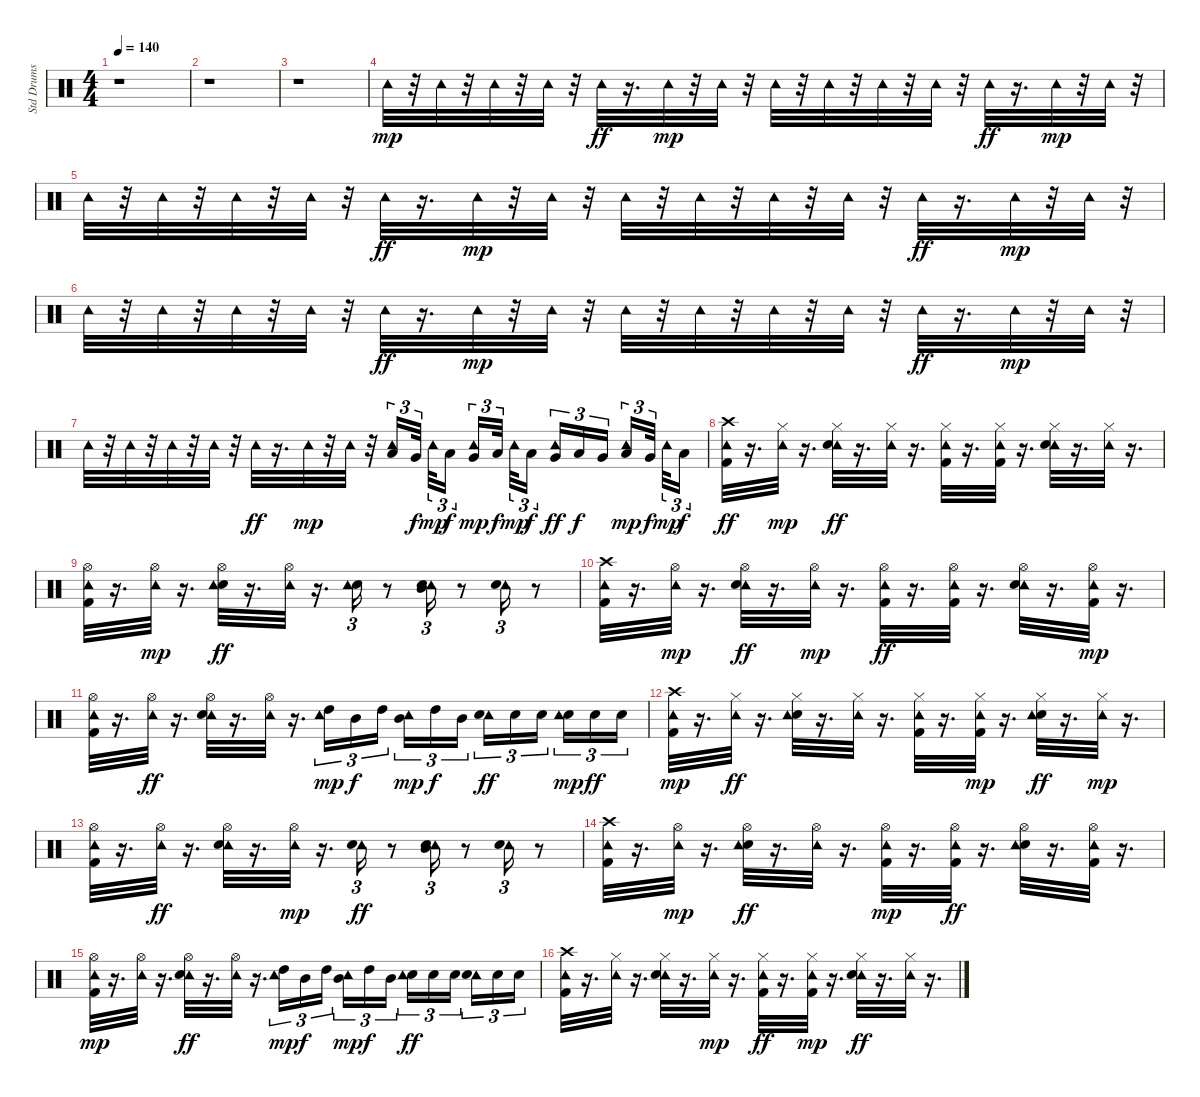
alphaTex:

\track ("Std Drums" "Std Drums") {instrument percussion}
\staff {score}
\articulation defaults
\ts (4 4)
\tempo 140
\clef neutral
\ks c
r.1{dy ff} |
r.1 |
r.1 |
"Tambourine (hit)".32{dy mp} r.32 "Tambourine (hit)".32 r.32 "Tambourine (hit)".32 r.32 "Tambourine (hit)".32 r.32 "Tambourine (hit)".32{dy ff} r.16{d} "Tambourine (hit)".32{dy mp} r.32 "Tambourine (hit)".32 r.32 "Tambourine (hit)".32 r.32 "Tambourine (hit)".32 r.32 "Tambourine (hit)".32 r.32 "Tambourine (hit)".32 r.32 "Tambourine (hit)".32{dy ff} r.16{d} "Tambourine (hit)".32{dy mp} r.32 "Tambourine (hit)".32 r.32 |
"Tambourine (hit)".32 r.32 "Tambourine (hit)".32 r.32 "Tambourine (hit)".32 r.32 "Tambourine (hit)".32 r.32 "Tambourine (hit)".32{dy ff} r.16{d} "Tambourine (hit)".32{dy mp} r.32 "Tambourine (hit)".32 r.32 "Tambourine (hit)".32 r.32 "Tambourine (hit)".32 r.32 "Tambourine (hit)".32 r.32 "Tambourine (hit)".32 r.32 "Tambourine (hit)".32{dy ff} r.16{d} "Tambourine (hit)".32{dy mp} r.32 "Tambourine (hit)".32 r.32 |
"Tambourine (hit)".32 r.32 "Tambourine (hit)".32 r.32 "Tambourine (hit)".32 r.32 "Tambourine (hit)".32 r.32 "Tambourine (hit)".32{dy ff} r.16{d} "Tambourine (hit)".32{dy mp} r.32 "Tambourine (hit)".32 r.32 "Tambourine (hit)".32 r.32 "Tambourine (hit)".32 r.32 "Tambourine (hit)".32 r.32 "Tambourine (hit)".32 r.32 "Tambourine (hit)".32{dy ff} r.16{d} "Tambourine (hit)".32{dy mp} r.32 "Tambourine (hit)".32 r.32 |
"Tambourine (hit)".32 r.32 "Tambourine (hit)".32 r.32 "Tambourine (hit)".32 r.32 "Tambourine (hit)".32 r.32 "Tambourine (hit)".32{dy ff} r.16{d} "Tambourine (hit)".32{dy mp} r.32 "Tambourine (hit)".32 r.32 ("Tambourine (hit)" "Low Floor Tom (hit)").16{tu (3 2)} "Very Low Tom (hit)".32{tu (3 2) dy f} "Tambourine (hit)".32{tu (3 2) dy mp} "Low Floor Tom (hit)".16{tu (3 2) dy f} ("Very Low Tom (hit)" "Tambourine (hit)").16{tu (3 2) dy mp} "Low Floor Tom (hit)".32{tu (3 2) dy f} "Tambourine (hit)".32{tu (3 2) dy mp} "Low Floor Tom (hit)".16{tu (3 2) dy f} ("Very Low Tom (hit)" "Tambourine (hit)").16{tu (3 2) dy ff} "Low Floor Tom (hit)".16{tu (3 2) dy f} "Very Low Tom (hit)".16{tu (3 2)} ("Low Floor Tom (hit)" "Tambourine (hit)").16{tu (3 2) dy mp} "Very Low Tom (hit)".32{tu (3 2) dy f} "Tambourine (hit)".32{tu (3 2) dy mp} "Low Floor Tom (hit)".16{tu (3 2) dy f} |
("Crash high (hit)" "Tambourine (hit)" "Kick (hit) 2").32{dy ff} r.16{d} ("Hi-Hat (closed)" "Tambourine (hit)").32{dy mp} r.16{d} ("Hi-Hat (closed)" "Tambourine (hit)" "Snare (hit) 2").32{dy ff} r.16{d} ("Tambourine (hit)" "Hi-Hat (closed)").32 r.16{d} ("Hi-Hat (closed)" "Tambourine (hit)" "Kick (hit) 2").32 r.16{d} ("Tambourine (hit)" "Hi-Hat (closed)" "Kick (hit) 2").32 r.16{d} ("Tambourine (hit)" "Snare (hit) 2" "Hi-Hat (closed)").32 r.16{d} ("Tambourine (hit)" "Hi-Hat (closed)").32 r.16{d} |
("Kick (hit) 2" "Tambourine (hit)" "Hi-Hat (open)").32 r.16{d} ("Hi-Hat (open)" "Tambourine (hit)").32{dy mp} r.16{d} ("Snare (hit) 2" "Tambourine (hit)" "Hi-Hat (open)").32{dy ff} r.16{d} ("Tambourine (hit)" "Hi-Hat (open)").32 r.16{d} ("Snare (hit) 2" "Tambourine (hit)").16{tu (3 2)} r.8 ("Tambourine (hit)" "Mid Tom (hit)" "Snare (hit) 2").16{tu (3 2)} r.8 ("Tambourine (hit)" "Snare (hit) 2").16{tu (3 2)} r.8 |
("Tambourine (hit)" "Crash high (hit)" "Kick (hit) 2").32 r.16{d} ("Hi-Hat (open)" "Tambourine (hit)").32{dy mp} r.16{d} ("Hi-Hat (open)" "Tambourine (hit)" "Snare (hit) 2").32{dy ff} r.16{d} ("Hi-Hat (open)" "Tambourine (hit)").32{dy mp} r.16{d} ("Tambourine (hit)" "Kick (hit) 2" "Hi-Hat (open)").32{dy ff} r.16{d} ("Hi-Hat (open)" "Tambourine (hit)" "Kick (hit) 2").32 r.16{d} ("Tambourine (hit)" "Snare (hit) 2" "Hi-Hat (open)").32 r.16{d} ("Hi-Hat (open)" "Kick (hit) 2" "Tambourine (hit)").32{dy mp} r.16{d} |
("Kick (hit) 2" "Hi-Hat (open)" "Tambourine (hit)").32 r.16{d} ("Tambourine (hit)" "Hi-Hat (open)").32{dy ff} r.16{d} ("Tambourine (hit)" "Snare (hit) 2" "Hi-Hat (open)").32 r.16{d} ("Tambourine (hit)" "Hi-Hat (open)").32 r.16{d} ("High Tom (hit)" "Tambourine (hit)").16{tu (3 2) dy mp} "Mid Tom (hit)".16{tu (3 2) dy f} "High Tom (hit)".16{tu (3 2)} ("Mid Tom (hit)" "Tambourine (hit)").16{tu (3 2) dy mp} "High Tom (hit)".16{tu (3 2) dy f} "Mid Tom (hit)".16{tu (3 2)} ("Tambourine (hit)" "Snare (hit) 2").16{tu (3 2) dy ff} "Snare (hit) 2".16{tu (3 2)} "Snare (hit) 2".16{tu (3 2)} ("Snare (hit) 2" "Tambourine (hit)").16{tu (3 2) dy mp} "Snare (hit) 2".16{tu (3 2) dy ff} "Snare (hit) 2".16{tu (3 2)} |
("Crash high (hit)" "Kick (hit) 2" "Tambourine (hit)").32{dy mp} r.16{d} ("Tambourine (hit)" "Hi-Hat (closed)").32{dy ff} r.16{d} ("Snare (hit) 2" "Tambourine (hit)" "Hi-Hat (closed)").32 r.16{d} ("Tambourine (hit)" "Hi-Hat (closed)").32 r.16{d} ("Tambourine (hit)" "Kick (hit) 2" "Hi-Hat (closed)").32 r.16{d} ("Hi-Hat (closed)" "Kick (hit) 2" "Tambourine (hit)").32{dy mp} r.16{d} ("Snare (hit) 2" "Hi-Hat (closed)" "Tambourine (hit)").32{dy ff} r.16{d} ("Hi-Hat (closed)" "Tambourine (hit)").32{dy mp} r.16{d} |
("Hi-Hat (open)" "Kick (hit) 2" "Tambourine (hit)").32 r.16{d} ("Tambourine (hit)" "Hi-Hat (open)").32{dy ff} r.16{d} ("Hi-Hat (open)" "Tambourine (hit)" "Snare (hit) 2").32 r.16{d} ("Hi-Hat (open)" "Tambourine (hit)").32{dy mp} r.16{d} ("Tambourine (hit)" "Snare (hit) 2").16{tu (3 2) dy ff} r.8 ("Tambourine (hit)" "Snare (hit) 2" "Mid Tom (hit)").16{tu (3 2)} r.8 ("Tambourine (hit)" "Snare (hit) 2").16{tu (3 2)} r.8 |
("Tambourine (hit)" "Kick (hit) 2" "Crash high (hit)").32 r.16{d} ("Hi-Hat (open)" "Tambourine (hit)").32{dy mp} r.16{d} ("Hi-Hat (open)" "Snare (hit) 2" "Tambourine (hit)").32{dy ff} r.16{d} ("Tambourine (hit)" "Hi-Hat (open)").32 r.16{d} ("Kick (hit) 2" "Hi-Hat (open)" "Tambourine (hit)").32{dy mp} r.16{d} ("Tambourine (hit)" "Kick (hit) 2" "Hi-Hat (open)").32{dy ff} r.16{d} ("Snare (hit) 2" "Hi-Hat (open)" "Tambourine (hit)").32 r.16{d} ("Tambourine (hit)" "Hi-Hat (open)" "Kick (hit) 2").32 r.16{d} |
("Hi-Hat (open)" "Kick (hit) 2" "Tambourine (hit)").32{dy mp volume 15} r.16{d} ("Hi-Hat (open)" "Tambourine (hit)").32 r.16{d} ("Tambourine (hit)" "Hi-Hat (open)" "Snare (hit) 2").32{dy ff volume 15} r.16{d} ("Tambourine (hit)" "Hi-Hat (open)").32{volume 15} r.16{d} ("High Tom (hit)" "Tambourine (hit)").16{tu (3 2) dy mp volume 15} "Mid Tom (hit)".16{tu (3 2) dy f} "High Tom (hit)".16{tu (3 2) volume 14} ("Mid Tom (hit)" "Tambourine (hit)").16{tu (3 2) dy mp} "High Tom (hit)".16{tu (3 2) dy f} "Mid Tom (hit)".16{tu (3 2) volume 14} ("Snare (hit) 2" "Tambourine (hit)").16{tu (3 2) dy ff} "Snare (hit) 2".16{tu (3 2)} "Snare (hit) 2".16{tu (3 2)} ("Tambourine (hit)" "Snare (hit) 2").16{tu (3 2) volume 14} "Snare (hit) 2".16{tu (3 2)} "Snare (hit) 2".16{tu (3 2)} |
("Tambourine (hit)" "Kick (hit) 2" "Crash high (hit)").32{volume 14} r.16{d} ("Tambourine (hit)" "Hi-Hat (closed)").32 r.16{d} ("Tambourine (hit)" "Hi-Hat (closed)" "Snare (hit) 2").32{volume 14} r.16{d} ("Hi-Hat (closed)" "Tambourine (hit)").32{dy mp volume 14} r.16{d} ("Hi-Hat (closed)" "Tambourine (hit)" "Kick (hit) 2").32{dy ff volume 14} r.16{d} ("Hi-Hat (closed)" "Kick (hit) 2" "Tambourine (hit)").32{dy mp volume 14} r.16{d} ("Tambourine (hit)" "Hi-Hat (closed)" "Snare (hit) 2").32{dy ff volume 14} r.16{d} ("Tambourine (hit)" "Hi-Hat (closed)").32{volume 13} r.16{d}
